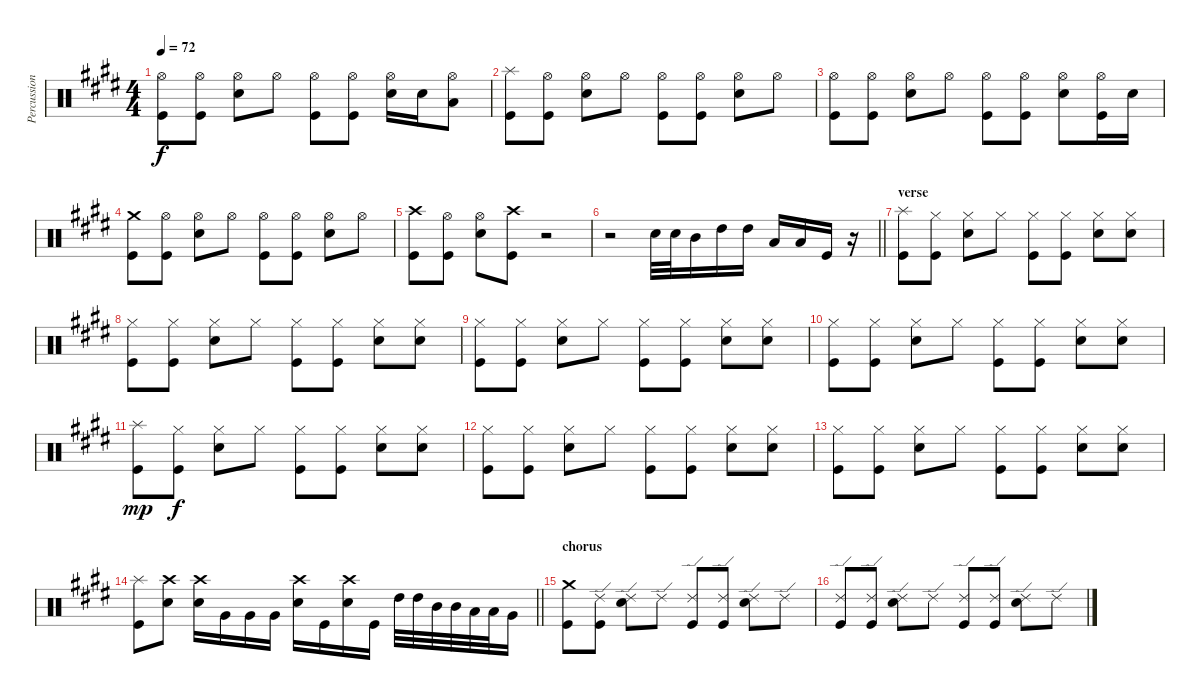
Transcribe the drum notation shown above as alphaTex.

\track ("Percussion" "Percussion") {instrument percussion}
\staff {score}
\articulation defaults
\ts (4 4)
\tempo 72
\clef neutral
\ks e
("Hi-Hat (open)" "Kick (hit)").8{dy f} ("Hi-Hat (open)" "Kick (hit)").8 ("Hi-Hat (open)" "Snare (hit) 2").8 "Hi-Hat (open)".8 ("Hi-Hat (open)" "Kick (hit)").8 ("Hi-Hat (open)" "Kick (hit)").8 ("Hi-Hat (open)" "Snare (hit) 2").16 "Snare (hit) 2".16 ("Hi-Hat (open)" "Low Tom (hit)").8 |
("Splash (hit)" "Kick (hit)").8 ("Hi-Hat (open)" "Kick (hit)").8 ("Hi-Hat (open)" "Snare (hit) 2").8 "Hi-Hat (open)".8 ("Hi-Hat (open)" "Kick (hit)").8 ("Hi-Hat (open)" "Kick (hit)").8 ("Hi-Hat (open)" "Snare (hit) 2").8 "Hi-Hat (open)".8 |
("Hi-Hat (open)" "Kick (hit)").8 ("Hi-Hat (open)" "Kick (hit)").8 ("Hi-Hat (open)" "Snare (hit) 2").8 "Hi-Hat (open)".8 ("Hi-Hat (open)" "Kick (hit)").8 ("Hi-Hat (open)" "Kick (hit)").8 ("Hi-Hat (open)" "Snare (hit) 2").8 ("Hi-Hat (open)" "Kick (hit)").16 "Snare (hit) 2".16 |
("Crash medium (hit)" "Kick (hit)").8 ("Hi-Hat (open)" "Kick (hit)").8 ("Hi-Hat (open)" "Snare (hit) 2").8 "Hi-Hat (open)".8 ("Hi-Hat (open)" "Kick (hit)").8 ("Hi-Hat (open)" "Kick (hit)").8 ("Hi-Hat (open)" "Snare (hit) 2").8 "Hi-Hat (open)".8 |
("Crash high (hit)" "Kick (hit)").8 ("Hi-Hat (open)" "Kick (hit)").8 ("Hi-Hat (open)" "Snare (hit) 2").8 ("Crash high (hit)" "Kick (hit)").8 r.2 |
\barLineRight lightlight
r.2{volume 6} "Snare (hit) 2".32 "Snare (hit) 2".32 "Mid Tom (hit)".16 "High Tom (hit)".16 "High Tom (hit)".16 "Low Tom (hit)".16 "Low Tom (hit)".16 "Kick (hit)".16 r.16 |
\section ("" "verse")
("Splash (hit)" "Kick (hit)").8{volume 4} ("Hi-Hat (closed)" "Kick (hit)").8 ("Hi-Hat (closed)" "Snare (hit) 2").8 "Hi-Hat (closed)".8 ("Hi-Hat (closed)" "Kick (hit)").8 ("Hi-Hat (closed)" "Kick (hit)").8 ("Hi-Hat (closed)" "Snare (hit) 2").8 ("Hi-Hat (closed)" "Snare (hit) 2").8 |
("Hi-Hat (closed)" "Kick (hit)").8 ("Hi-Hat (closed)" "Kick (hit)").8 ("Hi-Hat (closed)" "Snare (hit) 2").8 "Hi-Hat (closed)".8 ("Hi-Hat (closed)" "Kick (hit)").8 ("Hi-Hat (closed)" "Kick (hit)").8 ("Hi-Hat (closed)" "Snare (hit) 2").8 ("Hi-Hat (closed)" "Snare (hit) 2").8 |
("Hi-Hat (closed)" "Kick (hit)").8 ("Hi-Hat (closed)" "Kick (hit)").8 ("Hi-Hat (closed)" "Snare (hit) 2").8 "Hi-Hat (closed)".8 ("Hi-Hat (closed)" "Kick (hit)").8 ("Hi-Hat (closed)" "Kick (hit)").8 ("Hi-Hat (closed)" "Snare (hit) 2").8 ("Hi-Hat (closed)" "Snare (hit) 2").8 |
("Hi-Hat (closed)" "Kick (hit)").8 ("Hi-Hat (closed)" "Kick (hit)").8 ("Hi-Hat (closed)" "Snare (hit) 2").8 "Hi-Hat (closed)".8 ("Hi-Hat (closed)" "Kick (hit)").8 ("Hi-Hat (closed)" "Kick (hit)").8 ("Hi-Hat (closed)" "Snare (hit) 2").8 ("Hi-Hat (closed)" "Snare (hit) 2").8 |
("Splash (hit)" "Kick (hit)").8{dy mp} ("Hi-Hat (closed)" "Kick (hit)").8{dy f} ("Hi-Hat (closed)" "Snare (hit) 2").8 "Hi-Hat (closed)".8 ("Hi-Hat (closed)" "Kick (hit)").8 ("Hi-Hat (closed)" "Kick (hit)").8 ("Hi-Hat (closed)" "Snare (hit) 2").8 ("Hi-Hat (closed)" "Snare (hit) 2").8 |
("Hi-Hat (closed)" "Kick (hit)").8 ("Hi-Hat (closed)" "Kick (hit)").8 ("Hi-Hat (closed)" "Snare (hit) 2").8 "Hi-Hat (closed)".8 ("Hi-Hat (closed)" "Kick (hit)").8 ("Hi-Hat (closed)" "Kick (hit)").8 ("Hi-Hat (closed)" "Snare (hit) 2").8 ("Hi-Hat (closed)" "Snare (hit) 2").8 |
("Hi-Hat (closed)" "Kick (hit)").8 ("Hi-Hat (closed)" "Kick (hit)").8 ("Hi-Hat (closed)" "Snare (hit) 2").8 "Hi-Hat (closed)".8 ("Hi-Hat (closed)" "Kick (hit)").8 ("Hi-Hat (closed)" "Kick (hit)").8 ("Hi-Hat (closed)" "Snare (hit) 2").8 ("Hi-Hat (closed)" "Snare (hit) 2").8 |
\barLineRight lightlight
("Splash (hit)" "Kick (hit)").8{volume 12} ("Crash high (hit)" "Snare (hit) 2").8 ("Crash high (hit)" "Snare (hit) 2").16 "Very Low Tom (hit)".16 "Very Low Tom (hit)".16 "Very Low Tom (hit)".16 ("Crash high (hit)" "Snare (hit) 2").16 "Kick (hit)".16 ("Crash high (hit)" "Snare (hit) 2").16 "Kick (hit)".16 "High Tom (hit)".32 "High Tom (hit)".32 "Mid Tom (hit)".32 "Mid Tom (hit)".32 "Low Tom (hit)".32 "Low Tom (hit)".32 "Very Low Tom (hit)".16 |
\section ("" "chorus")
("Crash medium (hit)" "Kick (hit)").8 ("Ride (edge) 2" "Kick (hit)").8 ("Ride (edge) 2" "Snare (hit) 2").8 "Ride (edge) 2".8 ("Ride (edge) 2" "Kick (hit)").8 ("Ride (edge) 2" "Kick (hit)").8 ("Ride (edge) 2" "Snare (hit) 2").8 "Ride (edge) 2".8 |
("Ride (edge) 2" "Kick (hit)").8 ("Ride (edge) 2" "Kick (hit)").8 ("Ride (edge) 2" "Snare (hit) 2").8 "Ride (edge) 2".8 ("Ride (edge) 2" "Kick (hit)").8 ("Ride (edge) 2" "Kick (hit)").8 ("Ride (edge) 2" "Snare (hit) 2").8 "Ride (edge) 2".8
